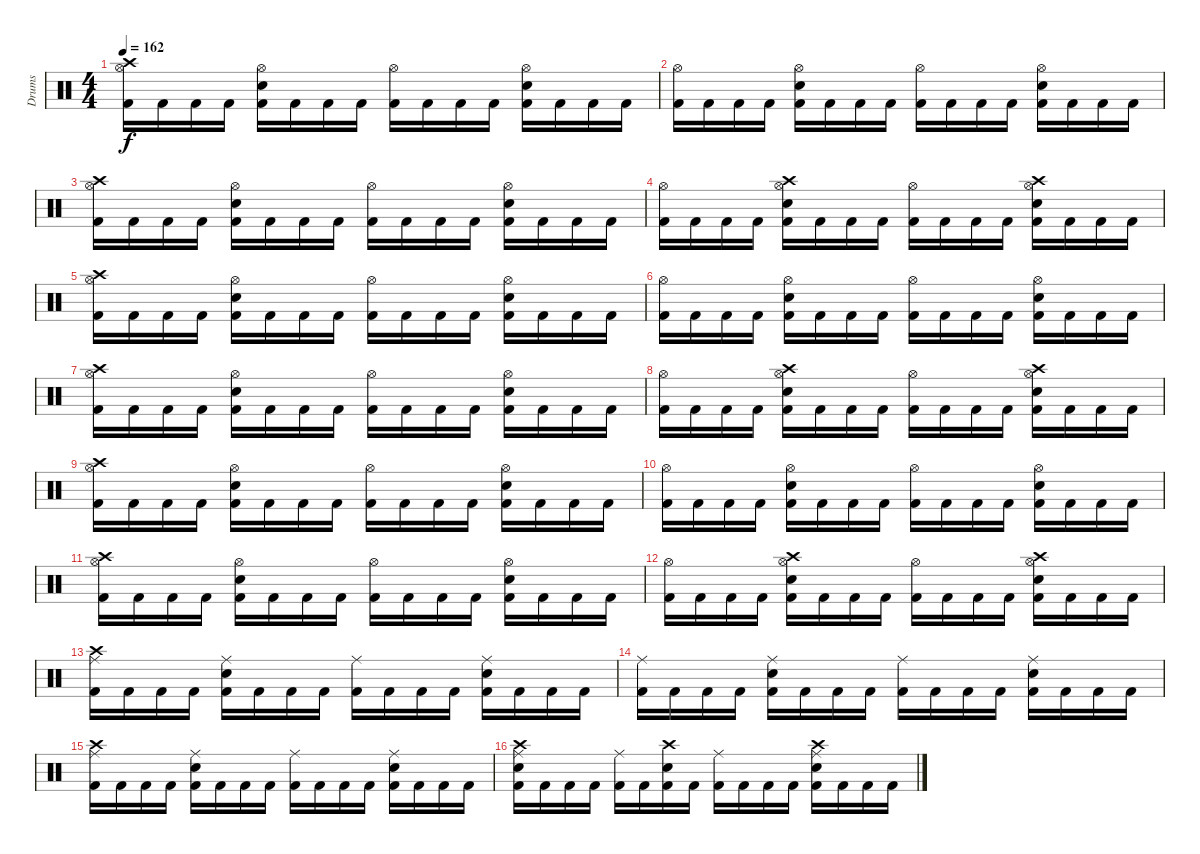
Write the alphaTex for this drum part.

\track ("Drums" "Drums") {instrument percussion}
\staff {score}
\articulation defaults
\ts (4 4)
\tempo 162
\clef neutral
\ks c
("Hi-Hat (open)" "Kick (hit) 2" "Crash high (hit)").16{dy f} "Kick (hit) 2".16 "Kick (hit) 2".16 "Kick (hit) 2".16 ("Hi-Hat (open)" "Electric Snare (hit)" "Kick (hit) 2").16 "Kick (hit) 2".16 "Kick (hit) 2".16 "Kick (hit) 2".16 ("Hi-Hat (open)" "Kick (hit) 2").16 "Kick (hit) 2".16 "Kick (hit) 2".16 "Kick (hit) 2".16 ("Hi-Hat (open)" "Electric Snare (hit)" "Kick (hit) 2").16 "Kick (hit) 2".16 "Kick (hit) 2".16 "Kick (hit) 2".16 |
("Hi-Hat (open)" "Kick (hit) 2").16 "Kick (hit) 2".16 "Kick (hit) 2".16 "Kick (hit) 2".16 ("Hi-Hat (open)" "Electric Snare (hit)" "Kick (hit) 2").16 "Kick (hit) 2".16 "Kick (hit) 2".16 "Kick (hit) 2".16 ("Hi-Hat (open)" "Kick (hit) 2").16 "Kick (hit) 2".16 "Kick (hit) 2".16 "Kick (hit) 2".16 ("Hi-Hat (open)" "Electric Snare (hit)" "Kick (hit) 2").16 "Kick (hit) 2".16 "Kick (hit) 2".16 "Kick (hit) 2".16 |
("Hi-Hat (open)" "Kick (hit) 2" "Crash high (hit)").16 "Kick (hit) 2".16 "Kick (hit) 2".16 "Kick (hit) 2".16 ("Hi-Hat (open)" "Electric Snare (hit)" "Kick (hit) 2").16 "Kick (hit) 2".16 "Kick (hit) 2".16 "Kick (hit) 2".16 ("Hi-Hat (open)" "Kick (hit) 2").16 "Kick (hit) 2".16 "Kick (hit) 2".16 "Kick (hit) 2".16 ("Hi-Hat (open)" "Electric Snare (hit)" "Kick (hit) 2").16 "Kick (hit) 2".16 "Kick (hit) 2".16 "Kick (hit) 2".16 |
("Hi-Hat (open)" "Kick (hit) 2").16 "Kick (hit) 2".16 "Kick (hit) 2".16 "Kick (hit) 2".16 ("Crash high (hit)" "Hi-Hat (open)" "Electric Snare (hit)" "Kick (hit) 2").16 "Kick (hit) 2".16 "Kick (hit) 2".16 "Kick (hit) 2".16 ("Hi-Hat (open)" "Kick (hit) 2").16 "Kick (hit) 2".16 "Kick (hit) 2".16 "Kick (hit) 2".16 ("Crash high (hit)" "Hi-Hat (open)" "Electric Snare (hit)" "Kick (hit) 2").16 "Kick (hit) 2".16 "Kick (hit) 2".16 "Kick (hit) 2".16 |
("Hi-Hat (open)" "Kick (hit) 2" "Crash high (hit)").16 "Kick (hit) 2".16 "Kick (hit) 2".16 "Kick (hit) 2".16 ("Hi-Hat (open)" "Electric Snare (hit)" "Kick (hit) 2").16 "Kick (hit) 2".16 "Kick (hit) 2".16 "Kick (hit) 2".16 ("Hi-Hat (open)" "Kick (hit) 2").16 "Kick (hit) 2".16 "Kick (hit) 2".16 "Kick (hit) 2".16 ("Hi-Hat (open)" "Electric Snare (hit)" "Kick (hit) 2").16 "Kick (hit) 2".16 "Kick (hit) 2".16 "Kick (hit) 2".16 |
("Hi-Hat (open)" "Kick (hit) 2").16 "Kick (hit) 2".16 "Kick (hit) 2".16 "Kick (hit) 2".16 ("Hi-Hat (open)" "Electric Snare (hit)" "Kick (hit) 2").16 "Kick (hit) 2".16 "Kick (hit) 2".16 "Kick (hit) 2".16 ("Hi-Hat (open)" "Kick (hit) 2").16 "Kick (hit) 2".16 "Kick (hit) 2".16 "Kick (hit) 2".16 ("Hi-Hat (open)" "Electric Snare (hit)" "Kick (hit) 2").16 "Kick (hit) 2".16 "Kick (hit) 2".16 "Kick (hit) 2".16 |
("Hi-Hat (open)" "Kick (hit) 2" "Crash high (hit)").16 "Kick (hit) 2".16 "Kick (hit) 2".16 "Kick (hit) 2".16 ("Hi-Hat (open)" "Electric Snare (hit)" "Kick (hit) 2").16 "Kick (hit) 2".16 "Kick (hit) 2".16 "Kick (hit) 2".16 ("Hi-Hat (open)" "Kick (hit) 2").16 "Kick (hit) 2".16 "Kick (hit) 2".16 "Kick (hit) 2".16 ("Hi-Hat (open)" "Electric Snare (hit)" "Kick (hit) 2").16 "Kick (hit) 2".16 "Kick (hit) 2".16 "Kick (hit) 2".16 |
("Hi-Hat (open)" "Kick (hit) 2").16 "Kick (hit) 2".16 "Kick (hit) 2".16 "Kick (hit) 2".16 ("Crash high (hit)" "Hi-Hat (open)" "Electric Snare (hit)" "Kick (hit) 2").16 "Kick (hit) 2".16 "Kick (hit) 2".16 "Kick (hit) 2".16 ("Hi-Hat (open)" "Kick (hit) 2").16 "Kick (hit) 2".16 "Kick (hit) 2".16 "Kick (hit) 2".16 ("Crash high (hit)" "Hi-Hat (open)" "Electric Snare (hit)" "Kick (hit) 2").16 "Kick (hit) 2".16 "Kick (hit) 2".16 "Kick (hit) 2".16 |
("Hi-Hat (open)" "Kick (hit) 2" "Crash high (hit)").16 "Kick (hit) 2".16 "Kick (hit) 2".16 "Kick (hit) 2".16 ("Hi-Hat (open)" "Electric Snare (hit)" "Kick (hit) 2").16 "Kick (hit) 2".16 "Kick (hit) 2".16 "Kick (hit) 2".16 ("Hi-Hat (open)" "Kick (hit) 2").16 "Kick (hit) 2".16 "Kick (hit) 2".16 "Kick (hit) 2".16 ("Hi-Hat (open)" "Electric Snare (hit)" "Kick (hit) 2").16 "Kick (hit) 2".16 "Kick (hit) 2".16 "Kick (hit) 2".16 |
("Hi-Hat (open)" "Kick (hit) 2").16 "Kick (hit) 2".16 "Kick (hit) 2".16 "Kick (hit) 2".16 ("Hi-Hat (open)" "Electric Snare (hit)" "Kick (hit) 2").16 "Kick (hit) 2".16 "Kick (hit) 2".16 "Kick (hit) 2".16 ("Hi-Hat (open)" "Kick (hit) 2").16 "Kick (hit) 2".16 "Kick (hit) 2".16 "Kick (hit) 2".16 ("Hi-Hat (open)" "Electric Snare (hit)" "Kick (hit) 2").16 "Kick (hit) 2".16 "Kick (hit) 2".16 "Kick (hit) 2".16 |
("Hi-Hat (open)" "Kick (hit) 2" "Crash high (hit)").16 "Kick (hit) 2".16 "Kick (hit) 2".16 "Kick (hit) 2".16 ("Hi-Hat (open)" "Electric Snare (hit)" "Kick (hit) 2").16 "Kick (hit) 2".16 "Kick (hit) 2".16 "Kick (hit) 2".16 ("Hi-Hat (open)" "Kick (hit) 2").16 "Kick (hit) 2".16 "Kick (hit) 2".16 "Kick (hit) 2".16 ("Hi-Hat (open)" "Electric Snare (hit)" "Kick (hit) 2").16 "Kick (hit) 2".16 "Kick (hit) 2".16 "Kick (hit) 2".16 |
("Hi-Hat (open)" "Kick (hit) 2").16 "Kick (hit) 2".16 "Kick (hit) 2".16 "Kick (hit) 2".16 ("Crash high (hit)" "Hi-Hat (open)" "Electric Snare (hit)" "Kick (hit) 2").16 "Kick (hit) 2".16 "Kick (hit) 2".16 "Kick (hit) 2".16 ("Hi-Hat (open)" "Kick (hit) 2").16 "Kick (hit) 2".16 "Kick (hit) 2".16 "Kick (hit) 2".16 ("Crash high (hit)" "Hi-Hat (open)" "Electric Snare (hit)" "Kick (hit) 2").16 "Kick (hit) 2".16 "Kick (hit) 2".16 "Kick (hit) 2".16 |
("Ride (middle)" "Kick (hit) 2" "Crash high (hit)").16 "Kick (hit) 2".16 "Kick (hit) 2".16 "Kick (hit) 2".16 ("Ride (middle)" "Electric Snare (hit)" "Kick (hit) 2").16 "Kick (hit) 2".16 "Kick (hit) 2".16 "Kick (hit) 2".16 ("Ride (middle)" "Kick (hit) 2").16 "Kick (hit) 2".16 "Kick (hit) 2".16 "Kick (hit) 2".16 ("Ride (middle)" "Electric Snare (hit)" "Kick (hit) 2").16 "Kick (hit) 2".16 "Kick (hit) 2".16 "Kick (hit) 2".16 |
("Ride (middle)" "Kick (hit) 2").16 "Kick (hit) 2".16 "Kick (hit) 2".16 "Kick (hit) 2".16 ("Ride (middle)" "Electric Snare (hit)" "Kick (hit) 2").16 "Kick (hit) 2".16 "Kick (hit) 2".16 "Kick (hit) 2".16 ("Ride (middle)" "Kick (hit) 2").16 "Kick (hit) 2".16 "Kick (hit) 2".16 "Kick (hit) 2".16 ("Ride (middle)" "Electric Snare (hit)" "Kick (hit) 2").16 "Kick (hit) 2".16 "Kick (hit) 2".16 "Kick (hit) 2".16 |
("Crash high (hit)" "Ride (middle)" "Kick (hit) 2").16 "Kick (hit) 2".16 "Kick (hit) 2".16 "Kick (hit) 2".16 ("Ride (middle)" "Electric Snare (hit)" "Kick (hit) 2").16 "Kick (hit) 2".16 "Kick (hit) 2".16 "Kick (hit) 2".16 ("Ride (middle)" "Kick (hit) 2").16 "Kick (hit) 2".16 "Kick (hit) 2".16 "Kick (hit) 2".16 ("Ride (middle)" "Electric Snare (hit)" "Kick (hit) 2").16 "Kick (hit) 2".16 "Kick (hit) 2".16 "Kick (hit) 2".16 |
("Crash high (hit)" "Electric Snare (hit)" "Ride (middle)" "Kick (hit) 2").16 "Kick (hit) 2".16 "Kick (hit) 2".16 "Kick (hit) 2".16 ("Ride (middle)" "Kick (hit) 2").16 "Kick (hit) 2".16 ("Crash high (hit)" "Electric Snare (hit)" "Kick (hit) 2").16 "Kick (hit) 2".16 ("Ride (middle)" "Kick (hit) 2").16 "Kick (hit) 2".16 "Kick (hit) 2".16 "Kick (hit) 2".16 ("Crash high (hit)" "Electric Snare (hit)" "Ride (middle)" "Kick (hit) 2").16 "Kick (hit) 2".16 "Kick (hit) 2".16 "Kick (hit) 2".16
